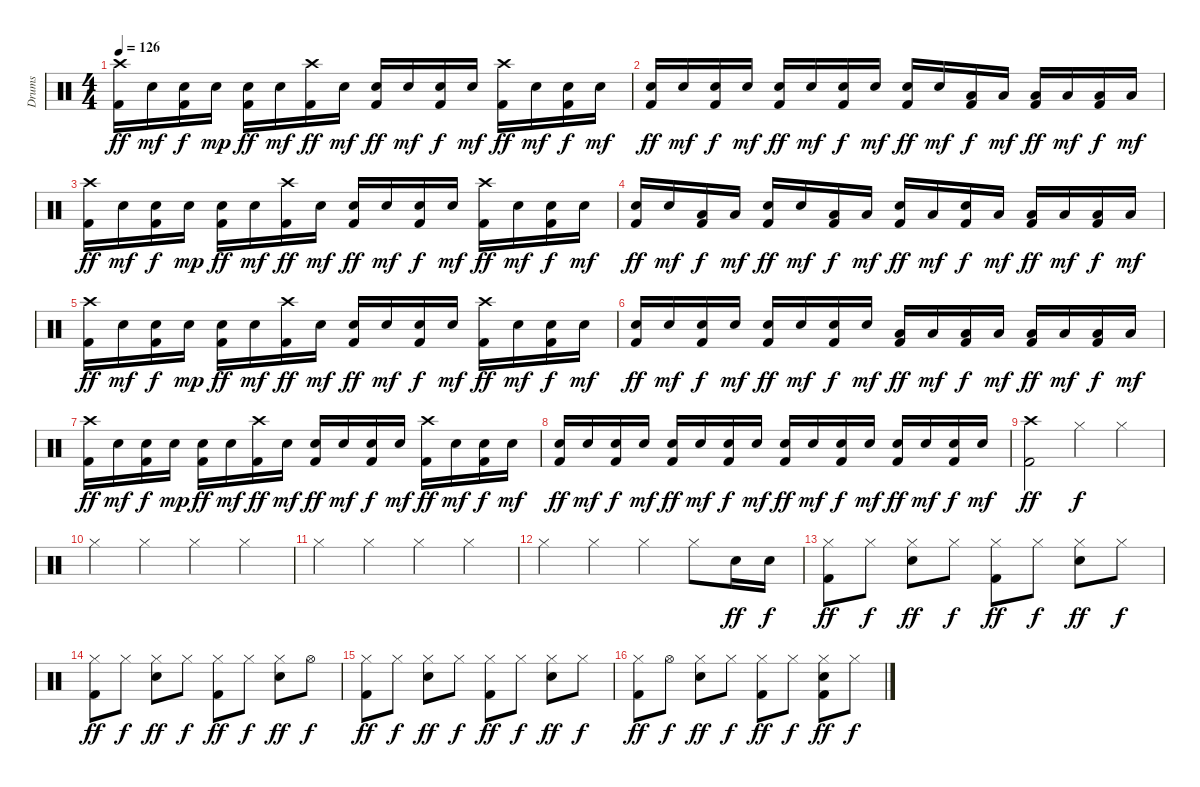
\track ("Drums" "Drums") {instrument percussion}
\staff {score}
\articulation defaults
\ts (4 4)
\tempo 126
\clef neutral
\ks c
("Crash high (hit)" "Kick (hit) 2").16{dy ff} "Snare (hit) 2".16{dy mf} ("Snare (hit) 2" "Kick (hit) 2").16{dy f} "Snare (hit) 2".16{dy mp} ("Snare (hit) 2" "Kick (hit) 2").16{dy ff} "Snare (hit) 2".16{dy mf} ("Crash high (hit)" "Kick (hit) 2").16{dy ff} "Snare (hit) 2".16{dy mf} ("Snare (hit) 2" "Kick (hit) 2").16{dy ff} "Snare (hit) 2".16{dy mf} ("Snare (hit) 2" "Kick (hit) 2").16{dy f} "Snare (hit) 2".16{dy mf} ("Crash high (hit)" "Kick (hit) 2").16{dy ff} "Snare (hit) 2".16{dy mf} ("Snare (hit) 2" "Kick (hit) 2").16{dy f} "Snare (hit) 2".16{dy mf} |
("Snare (hit) 2" "Kick (hit) 2").16{dy ff} "Snare (hit) 2".16{dy mf} ("Snare (hit) 2" "Kick (hit) 2").16{dy f} "Snare (hit) 2".16{dy mf} ("Snare (hit) 2" "Kick (hit) 2").16{dy ff} "Snare (hit) 2".16{dy mf} ("Snare (hit) 2" "Kick (hit) 2").16{dy f} "Snare (hit) 2".16{dy mf} ("Snare (hit) 2" "Kick (hit) 2").16{dy ff} "Snare (hit) 2".16{dy mf} ("Low Tom (hit)" "Kick (hit) 2").16{dy f} "Low Tom (hit)".16{dy mf} ("Low Floor Tom (hit)" "Kick (hit) 2").16{dy ff} "Low Floor Tom (hit)".16{dy mf} ("Low Floor Tom (hit)" "Kick (hit) 2").16{dy f} "Low Floor Tom (hit)".16{dy mf} |
("Crash high (hit)" "Kick (hit) 2").16{dy ff} "Snare (hit) 2".16{dy mf} ("Snare (hit) 2" "Kick (hit) 2").16{dy f} "Snare (hit) 2".16{dy mp} ("Snare (hit) 2" "Kick (hit) 2").16{dy ff} "Snare (hit) 2".16{dy mf} ("Crash high (hit)" "Kick (hit) 2").16{dy ff} "Snare (hit) 2".16{dy mf} ("Snare (hit) 2" "Kick (hit) 2").16{dy ff} "Snare (hit) 2".16{dy mf} ("Snare (hit) 2" "Kick (hit) 2").16{dy f} "Snare (hit) 2".16{dy mf} ("Crash high (hit)" "Kick (hit) 2").16{dy ff} "Snare (hit) 2".16{dy mf} ("Snare (hit) 2" "Kick (hit) 2").16{dy f} "Snare (hit) 2".16{dy mf} |
("Snare (hit) 2" "Kick (hit) 2").16{dy ff} "Snare (hit) 2".16{dy mf} ("Low Tom (hit)" "Kick (hit) 2").16{dy f} "Low Tom (hit)".16{dy mf} ("Snare (hit) 2" "Kick (hit) 2").16{dy ff} "Snare (hit) 2".16{dy mf} ("Low Tom (hit)" "Kick (hit) 2").16{dy f} "Low Tom (hit)".16{dy mf} ("Snare (hit) 2" "Kick (hit) 2").16{dy ff} "Low Tom (hit)".16{dy mf} ("Snare (hit) 2" "Kick (hit) 2").16{dy f} "Low Tom (hit)".16{dy mf} ("Low Tom (hit)" "Kick (hit) 2").16{dy ff} "Low Tom (hit)".16{dy mf} ("Low Floor Tom (hit)" "Kick (hit) 2").16{dy f} "Low Floor Tom (hit)".16{dy mf} |
("Crash high (hit)" "Kick (hit) 2").16{dy ff} "Snare (hit) 2".16{dy mf} ("Snare (hit) 2" "Kick (hit) 2").16{dy f} "Snare (hit) 2".16{dy mp} ("Snare (hit) 2" "Kick (hit) 2").16{dy ff} "Snare (hit) 2".16{dy mf} ("Crash high (hit)" "Kick (hit) 2").16{dy ff} "Snare (hit) 2".16{dy mf} ("Snare (hit) 2" "Kick (hit) 2").16{dy ff} "Snare (hit) 2".16{dy mf} ("Snare (hit) 2" "Kick (hit) 2").16{dy f} "Snare (hit) 2".16{dy mf} ("Crash high (hit)" "Kick (hit) 2").16{dy ff} "Snare (hit) 2".16{dy mf} ("Snare (hit) 2" "Kick (hit) 2").16{dy f} "Snare (hit) 2".16{dy mf} |
("Snare (hit) 2" "Kick (hit) 2").16{dy ff} "Snare (hit) 2".16{dy mf} ("Snare (hit) 2" "Kick (hit) 2").16{dy f} "Snare (hit) 2".16{dy mf} ("Snare (hit) 2" "Kick (hit) 2").16{dy ff} "Snare (hit) 2".16{dy mf} ("Snare (hit) 2" "Kick (hit) 2").16{dy f} "Snare (hit) 2".16{dy mf} ("Low Tom (hit)" "Kick (hit) 2").16{dy ff} "Low Tom (hit)".16{dy mf} ("Low Tom (hit)" "Kick (hit) 2").16{dy f} "Low Tom (hit)".16{dy mf} ("Low Floor Tom (hit)" "Kick (hit) 2").16{dy ff} "Low Floor Tom (hit)".16{dy mf} ("Low Floor Tom (hit)" "Kick (hit) 2").16{dy f} "Low Floor Tom (hit)".16{dy mf} |
("Crash high (hit)" "Kick (hit) 2").16{dy ff} "Snare (hit) 2".16{dy mf} ("Snare (hit) 2" "Kick (hit) 2").16{dy f} "Snare (hit) 2".16{dy mp} ("Snare (hit) 2" "Kick (hit) 2").16{dy ff} "Snare (hit) 2".16{dy mf} ("Crash high (hit)" "Kick (hit) 2").16{dy ff} "Snare (hit) 2".16{dy mf} ("Snare (hit) 2" "Kick (hit) 2").16{dy ff} "Snare (hit) 2".16{dy mf} ("Snare (hit) 2" "Kick (hit) 2").16{dy f} "Snare (hit) 2".16{dy mf} ("Crash high (hit)" "Kick (hit) 2").16{dy ff} "Snare (hit) 2".16{dy mf} ("Snare (hit) 2" "Kick (hit) 2").16{dy f} "Snare (hit) 2".16{dy mf} |
("Snare (hit) 2" "Kick (hit) 2").16{dy ff} "Snare (hit) 2".16{dy mf} ("Snare (hit) 2" "Kick (hit) 2").16{dy f} "Snare (hit) 2".16{dy mf} ("Snare (hit) 2" "Kick (hit) 2").16{dy ff} "Snare (hit) 2".16{dy mf} ("Snare (hit) 2" "Kick (hit) 2").16{dy f} "Snare (hit) 2".16{dy mf} ("Snare (hit) 2" "Kick (hit) 2").16{dy ff} "Snare (hit) 2".16{dy mf} ("Snare (hit) 2" "Kick (hit) 2").16{dy f} "Snare (hit) 2".16{dy mf} ("Snare (hit) 2" "Kick (hit) 2").16{dy ff} "Snare (hit) 2".16{dy mf} ("Snare (hit) 2" "Kick (hit) 2").16{dy f} "Snare (hit) 2".16{dy mf} |
("Crash high (hit)" "Kick (hit) 2").2{dy ff} "Hi-Hat (closed)".4{dy f} "Hi-Hat (closed)".4 |
"Hi-Hat (closed)".4 "Hi-Hat (closed)".4 "Hi-Hat (closed)".4 "Hi-Hat (closed)".4 |
"Hi-Hat (closed)".4 "Hi-Hat (closed)".4 "Hi-Hat (closed)".4 "Hi-Hat (closed)".4 |
"Hi-Hat (closed)".4 "Hi-Hat (closed)".4 "Hi-Hat (closed)".4 "Hi-Hat (closed)".8 "Snare (hit) 2".16{dy ff} "Snare (hit) 2".16{dy f} |
("Hi-Hat (closed)" "Kick (hit) 2").8{dy ff} "Hi-Hat (closed)".8{dy f} ("Hi-Hat (closed)" "Snare (hit) 2").8{dy ff} "Hi-Hat (closed)".8{dy f} ("Hi-Hat (closed)" "Kick (hit) 2").8{dy ff} "Hi-Hat (closed)".8{dy f} ("Hi-Hat (closed)" "Snare (hit) 2").8{dy ff} "Hi-Hat (closed)".8{dy f} |
("Hi-Hat (closed)" "Kick (hit) 2").8{dy ff} "Hi-Hat (closed)".8{dy f} ("Hi-Hat (closed)" "Snare (hit) 2").8{dy ff} "Hi-Hat (closed)".8{dy f} ("Hi-Hat (closed)" "Kick (hit) 2").8{dy ff} "Hi-Hat (closed)".8{dy f} ("Hi-Hat (closed)" "Snare (hit) 2").8{dy ff} "Hi-Hat (open)".8{dy f} |
("Hi-Hat (closed)" "Kick (hit) 2").8{dy ff} "Hi-Hat (closed)".8{dy f} ("Hi-Hat (closed)" "Snare (hit) 2").8{dy ff} "Hi-Hat (closed)".8{dy f} ("Hi-Hat (closed)" "Kick (hit) 2").8{dy ff} "Hi-Hat (closed)".8{dy f} ("Hi-Hat (closed)" "Snare (hit) 2").8{dy ff} "Hi-Hat (closed)".8{dy f} |
("Hi-Hat (closed)" "Kick (hit) 2").8{dy ff} "Hi-Hat (open)".8{dy f} ("Hi-Hat (closed)" "Snare (hit) 2").8{dy ff} "Hi-Hat (closed)".8{dy f} ("Hi-Hat (closed)" "Kick (hit) 2").8{dy ff} "Hi-Hat (closed)".8{dy f} ("Hi-Hat (closed)" "Snare (hit) 2" "Kick (hit) 2").8{dy ff} "Hi-Hat (closed)".8{dy f}
